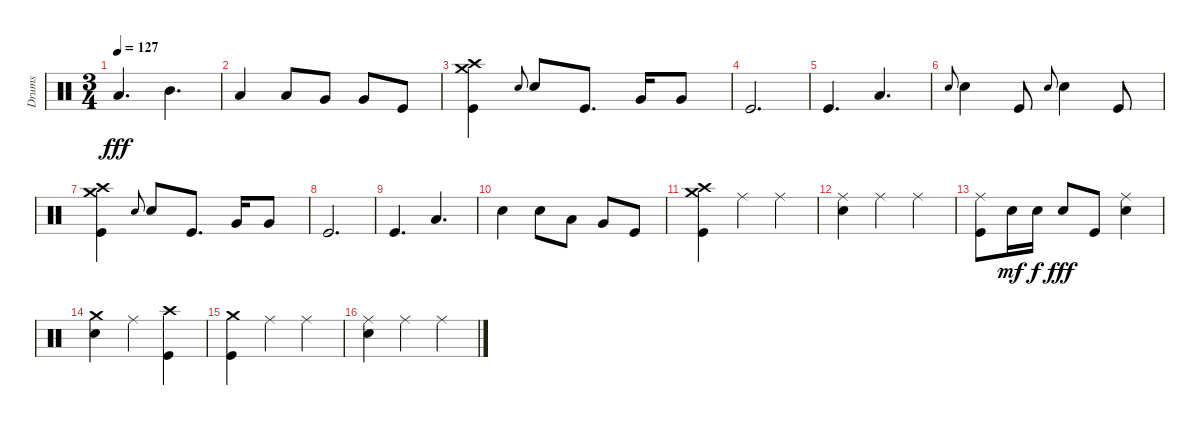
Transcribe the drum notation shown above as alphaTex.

\track ("Drums" "Drums") {instrument percussion}
\staff {score}
\articulation defaults
\ts (3 4)
\tempo 127
\clef neutral
\ks c "Low Tom (hit)".4{d dy fff} "Mid Tom (hit)".4{d}
|
"Low Tom (hit)".4 "Low Tom (hit)".8 "Very Low Tom (hit)".8 "Very Low Tom (hit)".8 "Kick (hit)".8 |
("Crash medium (hit)" "Crash high (hit)" "Kick (hit)").4 "Snare (hit) 2".8{gr onbeat} "Snare (hit) 2".8 "Kick (hit)".8{d} "Very Low Tom (hit)".16 "Very Low Tom (hit)".8 |
"Kick (hit)".2{d} |
"Kick (hit)".4{d} "Low Tom (hit)".4{d} |
"Snare (hit) 2".8{gr onbeat} "Snare (hit) 2".4 "Kick (hit)".8 "Snare (hit) 2".8{gr onbeat} "Snare (hit) 2".4 "Kick (hit)".8 |
("Crash medium (hit)" "Crash high (hit)" "Kick (hit)").4 "Snare (hit) 2".8{gr onbeat} "Snare (hit) 2".8 "Kick (hit)".8{d} "Very Low Tom (hit)".16 "Very Low Tom (hit)".8 |
"Kick (hit)".2{d} |
"Kick (hit)".4{d} "Low Tom (hit)".4{d} |
"Snare (hit) 2".4 "Snare (hit) 2".8 "Low Tom (hit)".8 "Very Low Tom (hit)".8 "Kick (hit)".8 |
("Crash medium (hit)" "Crash high (hit)" "Kick (hit)").4 "Ride (middle)".4 "Ride (middle)".4 |
("Ride (middle)" "Snare (hit) 2").4 "Ride (middle)".4 "Ride (middle)".4 |
("Ride (middle)" "Kick (hit)").8 "Snare (hit) 2".16{dy mf} "Snare (hit) 2".16{dy f} "Snare (hit) 2".8{dy fff} "Kick (hit)".8 ("Ride (middle)" "Snare (hit) 2").4 |
("Crash medium (hit)" "Snare (hit) 2").4 "Ride (middle)".4 ("Crash high (hit)" "Kick (hit)").4 |
("Crash medium (hit)" "Kick (hit)").4 "Ride (middle)".4 "Ride (middle)".4 |
("Ride (middle)" "Snare (hit) 2").4 "Ride (middle)".4 "Ride (middle)".4
